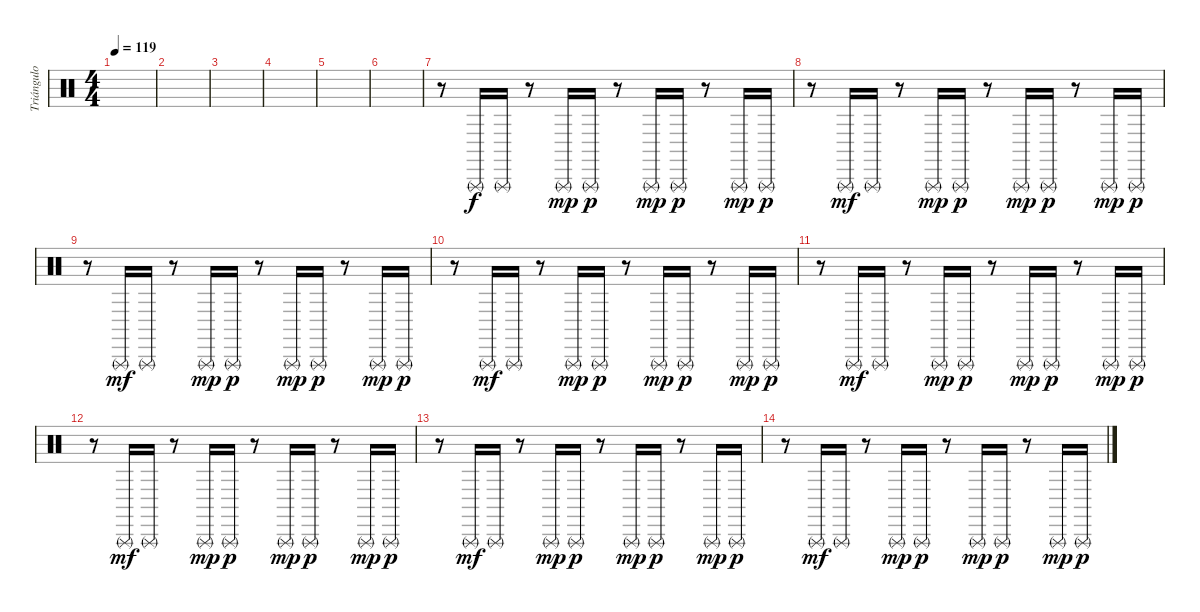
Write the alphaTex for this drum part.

\track ("Triángulo" "Triángulo") {instrument percussion}
\staff {score}
\articulation defaults
\ts (4 4)
\tempo 119
\clef neutral
\ks c
|
|
|
|
|
|
r.8 "Triangle (rnute)".16 "Triangle (rnute)".16 r.8 "Triangle (rnute)".16{dy mp} "Triangle (rnute)".16{dy p} r.8 "Triangle (rnute)".16{dy mp} "Triangle (rnute)".16{dy p} r.8 "Triangle (rnute)".16{dy mp} "Triangle (rnute)".16{dy p} |
r.8 "Triangle (rnute)".16{dy mf} "Triangle (rnute)".16 r.8 "Triangle (rnute)".16{dy mp} "Triangle (rnute)".16{dy p} r.8 "Triangle (rnute)".16{dy mp} "Triangle (rnute)".16{dy p} r.8 "Triangle (rnute)".16{dy mp} "Triangle (rnute)".16{dy p} |
r.8 "Triangle (rnute)".16{dy mf} "Triangle (rnute)".16 r.8 "Triangle (rnute)".16{dy mp} "Triangle (rnute)".16{dy p} r.8 "Triangle (rnute)".16{dy mp} "Triangle (rnute)".16{dy p} r.8 "Triangle (rnute)".16{dy mp} "Triangle (rnute)".16{dy p} |
r.8 "Triangle (rnute)".16{dy mf} "Triangle (rnute)".16 r.8 "Triangle (rnute)".16{dy mp} "Triangle (rnute)".16{dy p} r.8 "Triangle (rnute)".16{dy mp} "Triangle (rnute)".16{dy p} r.8 "Triangle (rnute)".16{dy mp} "Triangle (rnute)".16{dy p} |
r.8 "Triangle (rnute)".16{dy mf} "Triangle (rnute)".16 r.8 "Triangle (rnute)".16{dy mp} "Triangle (rnute)".16{dy p} r.8 "Triangle (rnute)".16{dy mp} "Triangle (rnute)".16{dy p} r.8 "Triangle (rnute)".16{dy mp} "Triangle (rnute)".16{dy p} |
r.8 "Triangle (rnute)".16{dy mf} "Triangle (rnute)".16 r.8 "Triangle (rnute)".16{dy mp} "Triangle (rnute)".16{dy p} r.8 "Triangle (rnute)".16{dy mp} "Triangle (rnute)".16{dy p} r.8 "Triangle (rnute)".16{dy mp} "Triangle (rnute)".16{dy p} |
r.8 "Triangle (rnute)".16{dy mf} "Triangle (rnute)".16 r.8 "Triangle (rnute)".16{dy mp} "Triangle (rnute)".16{dy p} r.8 "Triangle (rnute)".16{dy mp} "Triangle (rnute)".16{dy p} r.8 "Triangle (rnute)".16{dy mp} "Triangle (rnute)".16{dy p} |
r.8 "Triangle (rnute)".16{dy mf} "Triangle (rnute)".16 r.8 "Triangle (rnute)".16{dy mp} "Triangle (rnute)".16{dy p} r.8 "Triangle (rnute)".16{dy mp} "Triangle (rnute)".16{dy p} r.8 "Triangle (rnute)".16{dy mp} "Triangle (rnute)".16{dy p}
